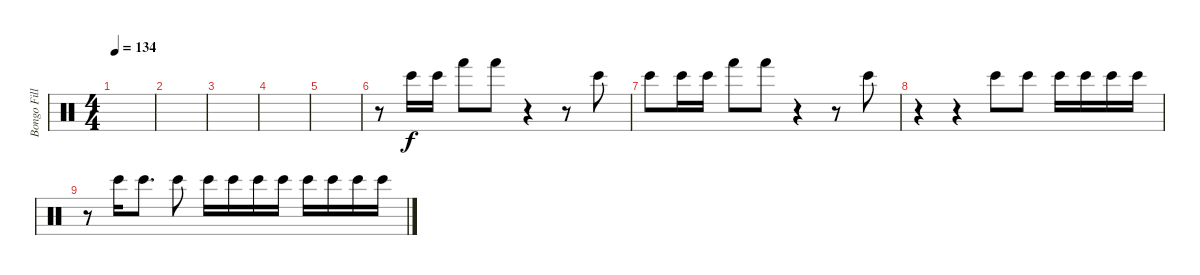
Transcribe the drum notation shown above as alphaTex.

\track ("Bongo Fills" "Bongo Fill") {instrument percussion}
\staff {score}
\articulation defaults
\ts (4 4)
\tempo 134
\clef neutral
\ks c
|
|
|
|
|
r.8 "Bongo High (hit)".16 "Bongo High (hit)".16 "Hand (hit)".8 "Hand (hit)".8 r.4 r.8 "Bongo High (hit)".8 |
"Bongo High (hit)".8 "Bongo High (hit)".16 "Bongo High (hit)".16 "Hand (hit)".8 "Hand (hit)".8 r.4 r.8 "Bongo High (hit)".8 |
r.4 r.4 "Bongo High (hit)".8 "Bongo High (hit)".8 "Bongo High (hit)".16 "Bongo High (hit)".16 "Bongo High (hit)".16 "Bongo High (hit)".16 |
r.8 "Bongo High (hit)".16 "Bongo High (hit)".8{d} "Bongo High (hit)".8 "Bongo High (hit)".16 "Bongo High (hit)".16 "Bongo High (hit)".16 "Bongo High (hit)".16 "Bongo High (hit)".16 "Bongo High (hit)".16 "Bongo High (hit)".16 "Bongo High (hit)".16
